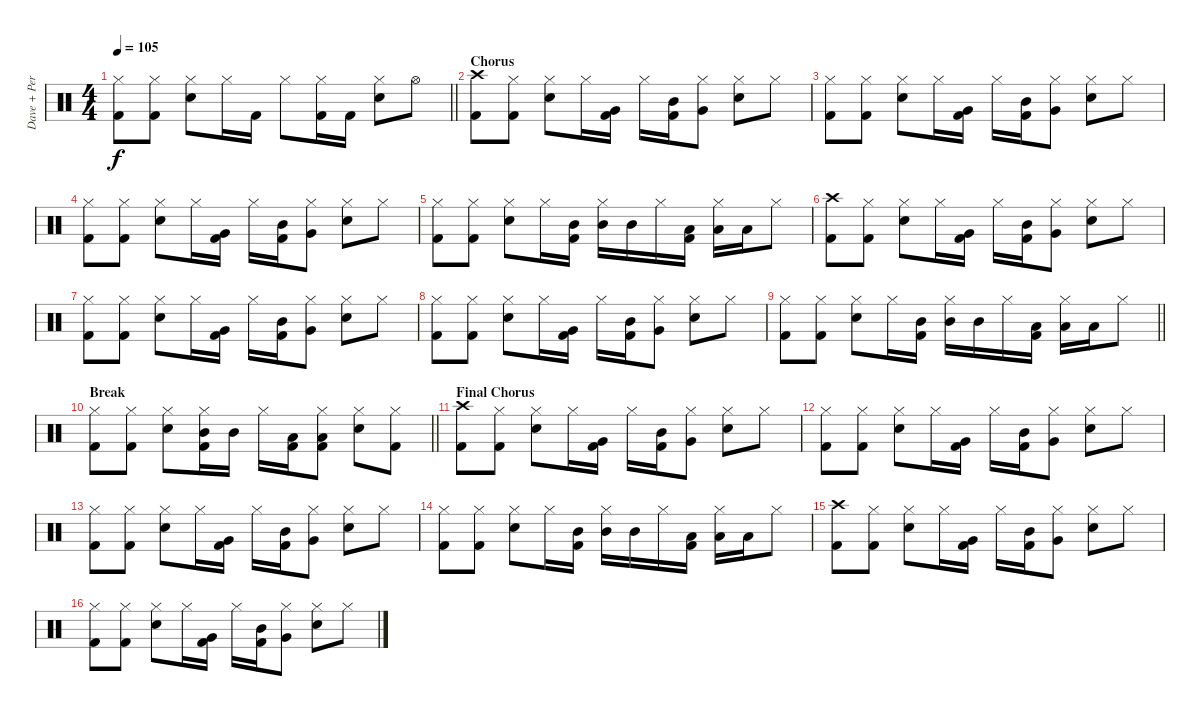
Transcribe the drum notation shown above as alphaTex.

\track ("Dave + Perc" "Dave + Per") {instrument percussion}
\staff {score}
\articulation defaults
\ts (4 4)
\tempo 105
\clef neutral
\barLineRight lightlight
\ks c
("Hi-Hat (closed)" "Kick (hit) 2").8{dy f} ("Hi-Hat (closed)" "Kick (hit) 2").8 ("Hi-Hat (closed)" "Snare (hit) 2").8 "Hi-Hat (closed)".16 "Kick (hit) 2".16 "Hi-Hat (closed)".8 ("Hi-Hat (closed)" "Kick (hit) 2").16 "Kick (hit) 2".16 ("Hi-Hat (closed)" "Snare (hit) 2").8 "Hi-Hat (open)".8 |
\section ("" "Chorus")
("Crash high (hit)" "Kick (hit) 2").8 ("Hi-Hat (closed)" "Kick (hit) 2").8 ("Hi-Hat (closed)" "Snare (hit) 2").8 "Hi-Hat (closed)".16 ("Very Low Tom (hit)" "Kick (hit) 2").16 "Hi-Hat (closed)".16 ("Mid Tom (hit)" "Kick (hit) 2").16 ("Hi-Hat (closed)" "Very Low Tom (hit)").8 ("Hi-Hat (closed)" "Snare (hit) 2").8 "Hi-Hat (closed)".8 |
("Hi-Hat (closed)" "Kick (hit) 2").8 ("Hi-Hat (closed)" "Kick (hit) 2").8 ("Hi-Hat (closed)" "Snare (hit) 2").8 "Hi-Hat (closed)".16 ("Very Low Tom (hit)" "Kick (hit) 2").16 "Hi-Hat (closed)".16 ("Mid Tom (hit)" "Kick (hit) 2").16 ("Hi-Hat (closed)" "Very Low Tom (hit)").8 ("Hi-Hat (closed)" "Snare (hit) 2").8 "Hi-Hat (closed)".8 |
("Hi-Hat (closed)" "Kick (hit) 2").8 ("Hi-Hat (closed)" "Kick (hit) 2").8 ("Hi-Hat (closed)" "Snare (hit) 2").8 "Hi-Hat (closed)".16 ("Very Low Tom (hit)" "Kick (hit) 2").16 "Hi-Hat (closed)".16 ("Mid Tom (hit)" "Kick (hit) 2").16 ("Hi-Hat (closed)" "Very Low Tom (hit)").8 ("Hi-Hat (closed)" "Snare (hit) 2").8 "Hi-Hat (closed)".8 |
("Hi-Hat (closed)" "Kick (hit) 2").8 ("Hi-Hat (closed)" "Kick (hit) 2").8 ("Hi-Hat (closed)" "Snare (hit) 2").8 "Hi-Hat (closed)".16 ("Mid Tom (hit)" "Kick (hit) 2").16 ("Hi-Hat (closed)" "Mid Tom (hit)").16 "Mid Tom (hit)".16 "Hi-Hat (closed)".16 ("Low Tom (hit)" "Kick (hit) 2").16 ("Hi-Hat (closed)" "Low Tom (hit)").16 "Low Tom (hit)".16 "Hi-Hat (closed)".8 |
("Crash high (hit)" "Kick (hit) 2").8 ("Hi-Hat (closed)" "Kick (hit) 2").8 ("Hi-Hat (closed)" "Snare (hit) 2").8 "Hi-Hat (closed)".16 ("Very Low Tom (hit)" "Kick (hit) 2").16 "Hi-Hat (closed)".16 ("Mid Tom (hit)" "Kick (hit) 2").16 ("Hi-Hat (closed)" "Very Low Tom (hit)").8 ("Hi-Hat (closed)" "Snare (hit) 2").8 "Hi-Hat (closed)".8 |
("Hi-Hat (closed)" "Kick (hit) 2").8 ("Hi-Hat (closed)" "Kick (hit) 2").8 ("Hi-Hat (closed)" "Snare (hit) 2").8 "Hi-Hat (closed)".16 ("Very Low Tom (hit)" "Kick (hit) 2").16 "Hi-Hat (closed)".16 ("Mid Tom (hit)" "Kick (hit) 2").16 ("Hi-Hat (closed)" "Very Low Tom (hit)").8 ("Hi-Hat (closed)" "Snare (hit) 2").8 "Hi-Hat (closed)".8 |
("Hi-Hat (closed)" "Kick (hit) 2").8 ("Hi-Hat (closed)" "Kick (hit) 2").8 ("Hi-Hat (closed)" "Snare (hit) 2").8 "Hi-Hat (closed)".16 ("Very Low Tom (hit)" "Kick (hit) 2").16 "Hi-Hat (closed)".16 ("Mid Tom (hit)" "Kick (hit) 2").16 ("Hi-Hat (closed)" "Very Low Tom (hit)").8 ("Hi-Hat (closed)" "Snare (hit) 2").8 "Hi-Hat (closed)".8 |
\barLineRight lightlight
("Hi-Hat (closed)" "Kick (hit) 2").8 ("Hi-Hat (closed)" "Kick (hit) 2").8 ("Hi-Hat (closed)" "Snare (hit) 2").8 "Hi-Hat (closed)".16 ("Mid Tom (hit)" "Kick (hit) 2").16 ("Hi-Hat (closed)" "Mid Tom (hit)").16 "Mid Tom (hit)".16 "Hi-Hat (closed)".16 ("Low Tom (hit)" "Kick (hit) 2").16 ("Hi-Hat (closed)" "Low Tom (hit)").16 "Low Tom (hit)".16 "Hi-Hat (closed)".8 |
\section ("" "Break")
\barLineRight lightlight
("Hi-Hat (closed)" "Kick (hit) 2").8 ("Hi-Hat (closed)" "Kick (hit) 2").8 ("Hi-Hat (closed)" "Snare (hit) 2").8 ("Hi-Hat (closed)" "Mid Tom (hit)" "Kick (hit) 2").16 "Mid Tom (hit)".16 "Hi-Hat (closed)".16 ("Low Tom (hit)" "Kick (hit) 2").16 ("Hi-Hat (closed)" "Low Tom (hit)" "Kick (hit) 2").8 ("Hi-Hat (closed)" "Snare (hit) 2").8 ("Hi-Hat (closed)" "Kick (hit) 2").8 |
\section ("" "Final Chorus")
("Crash high (hit)" "Kick (hit) 2").8 ("Hi-Hat (closed)" "Kick (hit) 2").8 ("Hi-Hat (closed)" "Snare (hit) 2").8 "Hi-Hat (closed)".16 ("Very Low Tom (hit)" "Kick (hit) 2").16 "Hi-Hat (closed)".16 ("Mid Tom (hit)" "Kick (hit) 2").16 ("Hi-Hat (closed)" "Very Low Tom (hit)").8 ("Hi-Hat (closed)" "Snare (hit) 2").8 "Hi-Hat (closed)".8 |
("Hi-Hat (closed)" "Kick (hit) 2").8 ("Hi-Hat (closed)" "Kick (hit) 2").8 ("Hi-Hat (closed)" "Snare (hit) 2").8 "Hi-Hat (closed)".16 ("Very Low Tom (hit)" "Kick (hit) 2").16 "Hi-Hat (closed)".16 ("Mid Tom (hit)" "Kick (hit) 2").16 ("Hi-Hat (closed)" "Very Low Tom (hit)").8 ("Hi-Hat (closed)" "Snare (hit) 2").8 "Hi-Hat (closed)".8 |
("Hi-Hat (closed)" "Kick (hit) 2").8 ("Hi-Hat (closed)" "Kick (hit) 2").8 ("Hi-Hat (closed)" "Snare (hit) 2").8 "Hi-Hat (closed)".16 ("Very Low Tom (hit)" "Kick (hit) 2").16 "Hi-Hat (closed)".16 ("Mid Tom (hit)" "Kick (hit) 2").16 ("Hi-Hat (closed)" "Very Low Tom (hit)").8 ("Hi-Hat (closed)" "Snare (hit) 2").8 "Hi-Hat (closed)".8 |
("Hi-Hat (closed)" "Kick (hit) 2").8 ("Hi-Hat (closed)" "Kick (hit) 2").8 ("Hi-Hat (closed)" "Snare (hit) 2").8 "Hi-Hat (closed)".16 ("Mid Tom (hit)" "Kick (hit) 2").16 ("Hi-Hat (closed)" "Mid Tom (hit)").16 "Mid Tom (hit)".16 "Hi-Hat (closed)".16 ("Low Tom (hit)" "Kick (hit) 2").16 ("Hi-Hat (closed)" "Low Tom (hit)").16 "Low Tom (hit)".16 "Hi-Hat (closed)".8 |
("Crash high (hit)" "Kick (hit) 2").8 ("Hi-Hat (closed)" "Kick (hit) 2").8 ("Hi-Hat (closed)" "Snare (hit) 2").8 "Hi-Hat (closed)".16 ("Very Low Tom (hit)" "Kick (hit) 2").16 "Hi-Hat (closed)".16 ("Mid Tom (hit)" "Kick (hit) 2").16 ("Hi-Hat (closed)" "Very Low Tom (hit)").8 ("Hi-Hat (closed)" "Snare (hit) 2").8 "Hi-Hat (closed)".8 |
("Hi-Hat (closed)" "Kick (hit) 2").8 ("Hi-Hat (closed)" "Kick (hit) 2").8 ("Hi-Hat (closed)" "Snare (hit) 2").8 "Hi-Hat (closed)".16 ("Very Low Tom (hit)" "Kick (hit) 2").16 "Hi-Hat (closed)".16 ("Mid Tom (hit)" "Kick (hit) 2").16 ("Hi-Hat (closed)" "Very Low Tom (hit)").8 ("Hi-Hat (closed)" "Snare (hit) 2").8 "Hi-Hat (closed)".8
